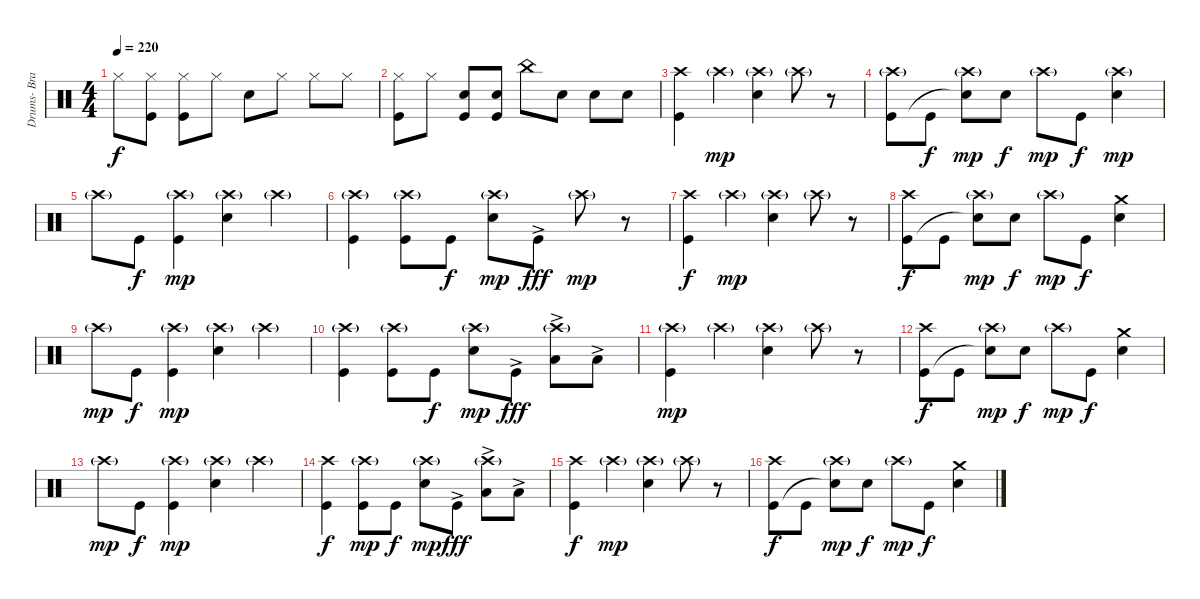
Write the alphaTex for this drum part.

\track ("Drums- Branden Steineckert" "Drums- Bra") {instrument percussion}
\staff {score}
\articulation defaults
\ts (4 4)
\tempo 220
\clef neutral
\ks c "Hi-Hat (closed)".8{dy f}
("Hi-Hat (closed)" "Kick (hit)").8 ("Hi-Hat (closed)" "Kick (hit)").8 "Hi-Hat (closed)".8 "Snare (hit) 2".8 "Hi-Hat (closed)".8 "Hi-Hat (closed)".8 "Hi-Hat (closed)".8 |
("Hi-Hat (closed)" "Kick (hit)").8 "Hi-Hat (closed)".8 ("Snare (hit) 2" "Kick (hit)").8 ("Snare (hit) 2" "Kick (hit)").8 "China (hit)".8 "Snare (hit) 2".8 "Snare (hit) 2".8 "Snare (hit) 2".8 |
("Crash high (hit)" "Kick (hit)").4 "Crash high (hit)"{g}.4{dy mp} ("Crash high (hit)"{g} "Snare (hit) 2").4 "Crash high (hit)"{g}.8 r.8 |
("Crash high (hit)"{g} "Kick (hit)").8 "Kick (hit)".8{dy f} ("Crash high (hit)"{g} "Snare (hit)"{t}).8{dy mp} "Snare (hit) 2".8{dy f} "Crash high (hit)"{g}.8{dy mp} "Kick (hit)".8{dy f} ("Crash high (hit)"{g} "Snare (hit) 2").4{dy mp} |
"Crash high (hit)"{g}.8 "Kick (hit)".8{dy f} ("Crash high (hit)"{g} "Kick (hit)").4{dy mp} ("Crash high (hit)"{g} "Snare (hit) 2").4 "Crash high (hit)"{g}.4 |
("Crash high (hit)"{g} "Kick (hit)").4 ("Crash high (hit)"{g} "Kick (hit)").8 "Kick (hit)".8{dy f} ("Crash high (hit)"{g} "Snare (hit) 2").8{dy mp} "Kick (hit)"{ac}.8{dy fff} "Crash high (hit)"{g}.8{dy mp} r.8 |
("Crash high (hit)" "Kick (hit)").4{dy f} "Crash high (hit)"{g}.4{dy mp} ("Crash high (hit)"{g} "Snare (hit) 2").4 "Crash high (hit)"{g}.8 r.8 |
("Crash high (hit)" "Kick (hit)").8{dy f} "Kick (hit)".8 ("Crash high (hit)"{g} "Snare (hit)"{t}).8{dy mp} "Snare (hit) 2".8{dy f} "Crash high (hit)"{g}.8{dy mp} "Kick (hit)".8{dy f} ("Crash medium (hit)" "Snare (hit) 2").4 |
"Crash high (hit)"{g}.8{dy mp} "Kick (hit)".8{dy f} ("Crash high (hit)"{g} "Kick (hit)").4{dy mp} ("Crash high (hit)"{g} "Snare (hit) 2").4 "Crash high (hit)"{g}.4 |
("Crash high (hit)"{g} "Kick (hit)").4 ("Crash high (hit)"{g} "Kick (hit)").8 "Kick (hit)".8{dy f} ("Crash high (hit)"{g} "Snare (hit) 2").8{dy mp} "Kick (hit)"{ac}.8{dy fff} ("Crash high (hit)"{g} "Low Tom (hit)"{ac}).8 "Low Floor Tom (hit)"{ac}.8 |
("Crash high (hit)"{g} "Kick (hit)").4{dy mp} "Crash high (hit)"{g}.4 ("Crash high (hit)"{g} "Snare (hit) 2").4 "Crash high (hit)"{g}.8 r.8 |
("Crash high (hit)" "Kick (hit)").8{dy f} "Kick (hit)".8 ("Crash high (hit)"{g} "Snare (hit)"{t}).8{dy mp} "Snare (hit) 2".8{dy f} "Crash high (hit)"{g}.8{dy mp} "Kick (hit)".8{dy f} ("Crash medium (hit)" "Snare (hit) 2").4 |
"Crash high (hit)"{g}.8{dy mp} "Kick (hit)".8{dy f} ("Crash high (hit)"{g} "Kick (hit)").4{dy mp} ("Crash high (hit)"{g} "Snare (hit) 2").4 "Crash high (hit)"{g}.4 |
("Crash high (hit)" "Kick (hit)").4{dy f} ("Crash high (hit)"{g} "Kick (hit)").8{dy mp} "Kick (hit)".8{dy f} ("Crash high (hit)"{g} "Snare (hit) 2").8{dy mp} "Kick (hit)"{ac}.8{dy fff} ("Crash high (hit)"{g} "Low Tom (hit)"{ac}).8 "Low Floor Tom (hit)"{ac}.8 |
("Crash high (hit)" "Kick (hit)").4{dy f} "Crash high (hit)"{g}.4{dy mp} ("Crash high (hit)"{g} "Snare (hit) 2").4 "Crash high (hit)"{g}.8 r.8 |
("Crash high (hit)" "Kick (hit)").8{dy f} "Kick (hit)".8 ("Crash high (hit)"{g} "Snare (hit)"{t}).8{dy mp} "Snare (hit) 2".8{dy f} "Crash high (hit)"{g}.8{dy mp} "Kick (hit)".8{dy f} ("Crash medium (hit)" "Snare (hit) 2").4
